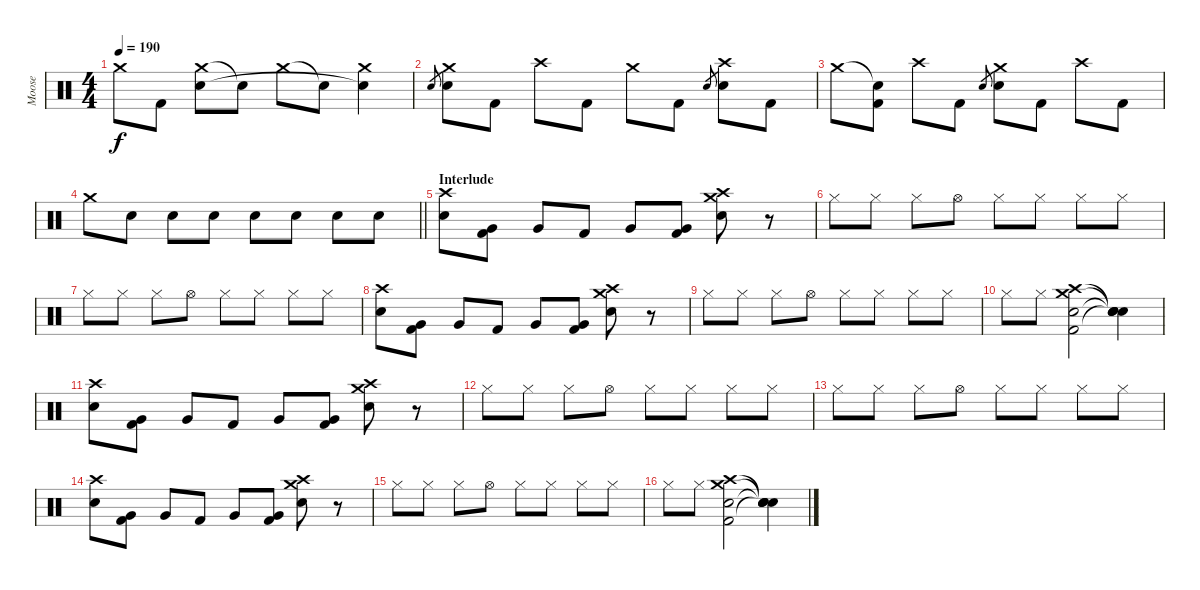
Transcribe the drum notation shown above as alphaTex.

\track ("Moose" "Moose") {instrument percussion}
\staff {score}
\articulation defaults
\ts (4 4)
\tempo 190
\clef neutral
\ks c "Crash medium (hit)".8{dy f} "Kick (hit) 2".8
("Crash medium (hit)" "Snare (hit) 2").8 "Snare (hit)"{t}.8 "Crash medium (hit)".8 "Snare (hit)"{t}.8 ("Crash medium (hit)" "Snare (hit)"{t}).4 |
"Snare (hit) 2".8{gr} ("Crash medium (hit)" "Snare (hit) 2").8 "Kick (hit) 2".8 "Crash high (hit)".8 "Kick (hit) 2".8 "Crash medium (hit)".8 "Kick (hit) 2".8 "Snare (hit) 2".8{gr} ("Crash high (hit)" "Snare (hit) 2").8 "Kick (hit) 2".8 |
"Crash medium (hit)".8 ("Snare (hit)"{t} "Kick (hit) 2").8 "Crash high (hit)".8 "Kick (hit) 2".8 "Snare (hit) 2".8{gr} ("Crash medium (hit)" "Snare (hit) 2").8 "Kick (hit) 2".8 "Crash high (hit)".8 "Kick (hit) 2".8 |
\barLineRight lightlight "Crash medium (hit)".8 "Snare (hit) 2".8 "Snare (hit) 2".8 "Snare (hit) 2".8 "Snare (hit) 2".8 "Snare (hit) 2".8 "Snare (hit) 2".8 "Snare (hit) 2".8
|
\section ("" "Interlude")
("Crash high (hit)" "Snare (hit) 2").8 ("Very Low Tom (hit)" "Kick (hit) 2").8 "Very Low Tom (hit)".8 "Kick (hit) 2".8 "Very Low Tom (hit)".8 ("Very Low Tom (hit)" "Kick (hit) 2").8 ("Crash high (hit)" "Crash medium (hit)" "Snare (hit) 2").8 r.8 |
"Hi-Hat (closed)".8 "Hi-Hat (closed)".8 "Hi-Hat (closed)".8 "Hi-Hat (open)".8 "Hi-Hat (closed)".8 "Hi-Hat (closed)".8 "Hi-Hat (closed)".8 "Hi-Hat (closed)".8 |
"Hi-Hat (closed)".8 "Hi-Hat (closed)".8 "Hi-Hat (closed)".8 "Hi-Hat (open)".8 "Hi-Hat (closed)".8 "Hi-Hat (closed)".8 "Hi-Hat (closed)".8 "Hi-Hat (closed)".8 |
("Crash high (hit)" "Snare (hit) 2").8 ("Very Low Tom (hit)" "Kick (hit) 2").8 "Very Low Tom (hit)".8 "Kick (hit) 2".8 "Very Low Tom (hit)".8 ("Very Low Tom (hit)" "Kick (hit) 2").8 ("Crash high (hit)" "Crash medium (hit)" "Snare (hit) 2").8 r.8 |
"Hi-Hat (closed)".8 "Hi-Hat (closed)".8 "Hi-Hat (closed)".8 "Hi-Hat (open)".8 "Hi-Hat (closed)".8 "Hi-Hat (closed)".8 "Hi-Hat (closed)".8 "Hi-Hat (closed)".8 |
"Hi-Hat (closed)".8 "Hi-Hat (closed)".8 ("Crash high (hit)" "Crash medium (hit)" "Snare (hit) 2" "Kick (hit) 2").2 ("Snare (hit)"{t} "Snare (hit)"{t} "Snare (hit)"{t} "Snare (hit)"{t}).4 |
("Crash high (hit)" "Snare (hit) 2").8 ("Very Low Tom (hit)" "Kick (hit) 2").8 "Very Low Tom (hit)".8 "Kick (hit) 2".8 "Very Low Tom (hit)".8 ("Very Low Tom (hit)" "Kick (hit) 2").8 ("Crash high (hit)" "Crash medium (hit)" "Snare (hit) 2").8 r.8 |
"Hi-Hat (closed)".8 "Hi-Hat (closed)".8 "Hi-Hat (closed)".8 "Hi-Hat (open)".8 "Hi-Hat (closed)".8 "Hi-Hat (closed)".8 "Hi-Hat (closed)".8 "Hi-Hat (closed)".8 |
"Hi-Hat (closed)".8 "Hi-Hat (closed)".8 "Hi-Hat (closed)".8 "Hi-Hat (open)".8 "Hi-Hat (closed)".8 "Hi-Hat (closed)".8 "Hi-Hat (closed)".8 "Hi-Hat (closed)".8 |
("Crash high (hit)" "Snare (hit) 2").8 ("Very Low Tom (hit)" "Kick (hit) 2").8 "Very Low Tom (hit)".8 "Kick (hit) 2".8 "Very Low Tom (hit)".8 ("Very Low Tom (hit)" "Kick (hit) 2").8 ("Crash high (hit)" "Crash medium (hit)" "Snare (hit) 2").8 r.8 |
"Hi-Hat (closed)".8 "Hi-Hat (closed)".8 "Hi-Hat (closed)".8 "Hi-Hat (open)".8 "Hi-Hat (closed)".8 "Hi-Hat (closed)".8 "Hi-Hat (closed)".8 "Hi-Hat (closed)".8 |
"Hi-Hat (closed)".8 "Hi-Hat (closed)".8 ("Crash high (hit)" "Crash medium (hit)" "Snare (hit) 2" "Kick (hit) 2").2 ("Snare (hit)"{t} "Snare (hit)"{t} "Snare (hit)"{t} "Snare (hit)"{t}).4
